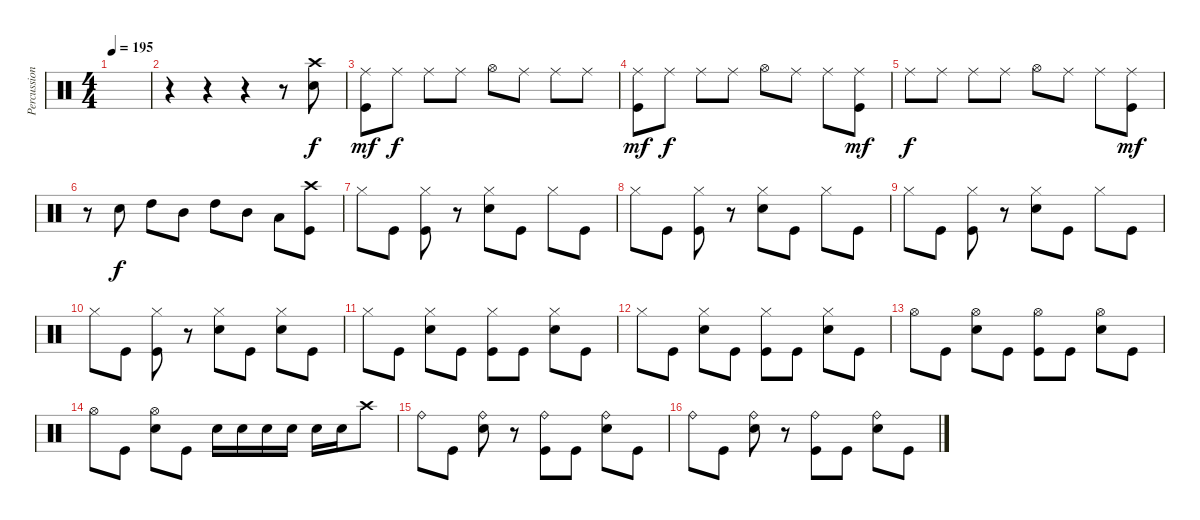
\track ("Percussion" "Percussion") {instrument percussion}
\staff {score}
\articulation defaults
\ts (4 4)
\tempo 195
\clef neutral
\ks c
|
r.4 r.4 r.4 r.8 ("Crash high (hit)" "Electric Snare (hit)").8 |
("Ride (middle)" "Kick (hit)").8{dy mf} "Ride (middle)".8{dy f} "Ride (middle)".8 "Ride (middle)".8 "Hi-Hat (open)".8 "Ride (middle)".8 "Ride (middle)".8 "Ride (middle)".8 |
("Ride (middle)" "Kick (hit)").8{dy mf} "Ride (middle)".8{dy f} "Ride (middle)".8 "Ride (middle)".8 "Hi-Hat (open)".8 "Ride (middle)".8 "Ride (middle)".8 ("Ride (middle)" "Kick (hit)").8{dy mf} |
"Ride (middle)".8{dy f} "Ride (middle)".8 "Ride (middle)".8 "Ride (middle)".8 "Hi-Hat (open)".8 "Ride (middle)".8 "Ride (middle)".8 ("Ride (middle)" "Kick (hit)").8{dy mf} |
r.8 "Electric Snare (hit)".8{dy f} "High Tom (hit)".8 "Mid Tom (hit)".8 "High Tom (hit)".8 "Mid Tom (hit)".8 "Low Floor Tom (hit)".8 ("Crash high (hit)" "Kick (hit)").8 |
"Hi-Hat (closed)".8 "Kick (hit)".8 ("Hi-Hat (closed)" "Kick (hit)").8 r.8 ("Hi-Hat (closed)" "Electric Snare (hit)").8 "Kick (hit)".8 "Hi-Hat (closed)".8 "Kick (hit)".8 |
"Hi-Hat (closed)".8 "Kick (hit)".8 ("Hi-Hat (closed)" "Kick (hit)").8 r.8 ("Hi-Hat (closed)" "Electric Snare (hit)").8 "Kick (hit)".8 "Hi-Hat (closed)".8 "Kick (hit)".8 |
"Hi-Hat (closed)".8 "Kick (hit)".8 ("Hi-Hat (closed)" "Kick (hit)").8 r.8 ("Hi-Hat (closed)" "Electric Snare (hit)").8 "Kick (hit)".8 "Hi-Hat (closed)".8 "Kick (hit)".8 |
"Hi-Hat (closed)".8 "Kick (hit)".8 ("Hi-Hat (closed)" "Kick (hit)").8 r.8 ("Hi-Hat (closed)" "Electric Snare (hit)").8 "Kick (hit)".8 ("Hi-Hat (closed)" "Electric Snare (hit)").8 "Kick (hit)".8 |
"Hi-Hat (closed)".8 "Kick (hit)".8 ("Hi-Hat (closed)" "Electric Snare (hit)").8 "Kick (hit)".8 ("Hi-Hat (closed)" "Kick (hit)").8 "Kick (hit)".8 ("Hi-Hat (closed)" "Electric Snare (hit)").8 "Kick (hit)".8 |
"Hi-Hat (closed)".8 "Kick (hit)".8 ("Hi-Hat (closed)" "Electric Snare (hit)").8 "Kick (hit)".8 ("Hi-Hat (closed)" "Kick (hit)").8 "Kick (hit)".8 ("Hi-Hat (closed)" "Electric Snare (hit)").8 "Kick (hit)".8 |
"Hi-Hat (open)".8 "Kick (hit)".8 ("Hi-Hat (open)" "Electric Snare (hit)").8 "Kick (hit)".8 ("Hi-Hat (open)" "Kick (hit)").8 "Kick (hit)".8 ("Hi-Hat (open)" "Electric Snare (hit)").8 "Kick (hit)".8 |
"Hi-Hat (open)".8 "Kick (hit)".8 ("Hi-Hat (open)" "Electric Snare (hit)").8 "Kick (hit)".8 "Electric Snare (hit)".16 "Electric Snare (hit)".16 "Electric Snare (hit)".16 "Electric Snare (hit)".16 "Electric Snare (hit)".16 "Electric Snare (hit)".16 "Crash high (hit)".8 |
"Ride (bell)".8 "Kick (hit)".8 ("Ride (bell)" "Electric Snare (hit)").8 r.8 ("Ride (bell)" "Kick (hit)").8 "Kick (hit)".8 ("Ride (bell)" "Electric Snare (hit)").8 "Kick (hit)".8 |
"Ride (bell)".8 "Kick (hit)".8 ("Ride (bell)" "Electric Snare (hit)").8 r.8 ("Ride (bell)" "Kick (hit)").8 "Kick (hit)".8 ("Ride (bell)" "Electric Snare (hit)").8 "Kick (hit)".8
